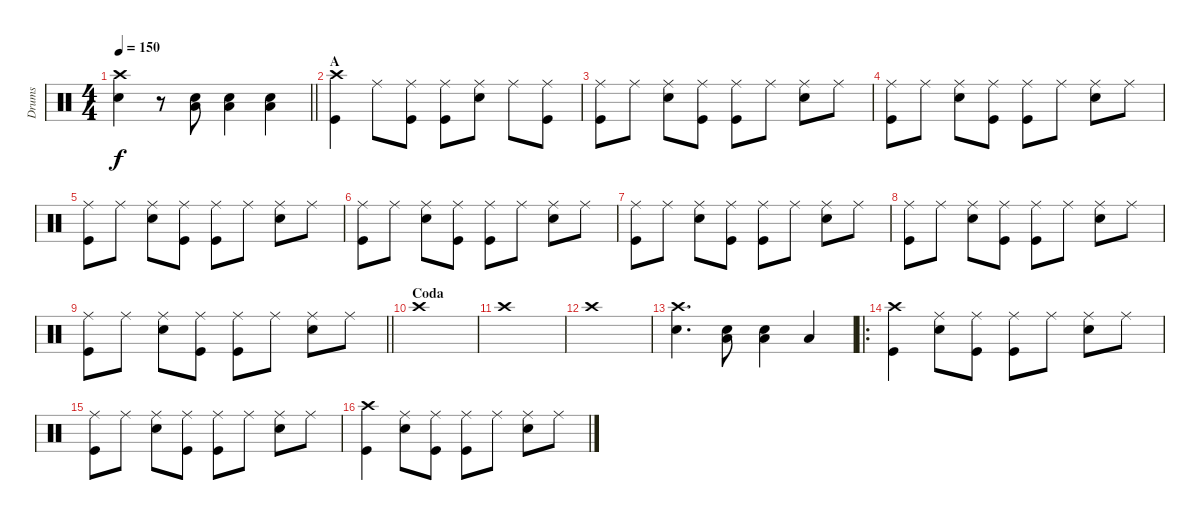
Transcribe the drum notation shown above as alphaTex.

\track ("Drums" "Drums") {instrument percussion}
\staff {score}
\articulation defaults
\ts (4 4)
\tempo 150
\clef neutral
\barLineRight lightlight
\ks c
("Crash high (hit)" "Snare (hit) 2").4{dy f} r.8 ("Snare (hit) 2" "Low Tom (hit)").8 ("Snare (hit) 2" "Low Tom (hit)").4 ("Snare (hit) 2" "Low Tom (hit)").4 |
\section ("" "A")
("Crash high (hit)" "Kick (hit)").4 "Ride (middle)".8 ("Ride (middle)" "Kick (hit)").8 ("Ride (middle)" "Kick (hit)").8 ("Ride (middle)" "Snare (hit) 2").8 "Ride (middle)".8 ("Ride (middle)" "Kick (hit)").8 |
("Ride (middle)" "Kick (hit)").8 "Ride (middle)".8 ("Ride (middle)" "Snare (hit) 2").8 ("Ride (middle)" "Kick (hit)").8 ("Ride (middle)" "Kick (hit)").8 "Ride (middle)".8 ("Ride (middle)" "Snare (hit) 2").8 "Ride (middle)".8 |
("Ride (middle)" "Kick (hit)").8 "Ride (middle)".8 ("Ride (middle)" "Snare (hit) 2").8 ("Ride (middle)" "Kick (hit)").8 ("Ride (middle)" "Kick (hit)").8 "Ride (middle)".8 ("Ride (middle)" "Snare (hit) 2").8 "Ride (middle)".8 |
("Ride (middle)" "Kick (hit)").8 "Ride (middle)".8 ("Ride (middle)" "Snare (hit) 2").8 ("Ride (middle)" "Kick (hit)").8 ("Ride (middle)" "Kick (hit)").8 "Ride (middle)".8 ("Ride (middle)" "Snare (hit) 2").8 "Ride (middle)".8 |
("Ride (middle)" "Kick (hit)").8 "Ride (middle)".8 ("Ride (middle)" "Snare (hit) 2").8 ("Ride (middle)" "Kick (hit)").8 ("Ride (middle)" "Kick (hit)").8 "Ride (middle)".8 ("Ride (middle)" "Snare (hit) 2").8 "Ride (middle)".8 |
("Ride (middle)" "Kick (hit)").8 "Ride (middle)".8 ("Ride (middle)" "Snare (hit) 2").8 ("Ride (middle)" "Kick (hit)").8 ("Ride (middle)" "Kick (hit)").8 "Ride (middle)".8 ("Ride (middle)" "Snare (hit) 2").8 "Ride (middle)".8 |
("Ride (middle)" "Kick (hit)").8 "Ride (middle)".8 ("Ride (middle)" "Snare (hit) 2").8 ("Ride (middle)" "Kick (hit)").8 ("Ride (middle)" "Kick (hit)").8 "Ride (middle)".8 ("Ride (middle)" "Snare (hit) 2").8 "Ride (middle)".8 |
\barLineRight lightlight
("Ride (middle)" "Kick (hit)").8 "Ride (middle)".8 ("Ride (middle)" "Snare (hit) 2").8 ("Ride (middle)" "Kick (hit)").8 ("Ride (middle)" "Kick (hit)").8 "Ride (middle)".8 ("Ride (middle)" "Snare (hit) 2").8 "Ride (middle)".8 |
\section ("" "Coda")
"Crash high (hit)".1 |
"Crash high (hit)".1 |
"Crash high (hit)".1 |
("Crash high (hit)" "Snare (hit) 2").4{d} ("Snare (hit) 2" "Low Tom (hit)").8 ("Snare (hit) 2" "Low Tom (hit)").4 "Low Tom (hit)".4 |
\ro
("Crash high (hit)" "Kick (hit)").4 ("Ride (middle)" "Snare (hit) 2").8 ("Ride (middle)" "Kick (hit)").8 ("Ride (middle)" "Kick (hit)").8 "Ride (middle)".8 ("Ride (middle)" "Snare (hit) 2").8 "Ride (middle)".8 |
("Ride (middle)" "Kick (hit)").8 "Ride (middle)".8 ("Ride (middle)" "Snare (hit) 2").8 ("Ride (middle)" "Kick (hit)").8 ("Ride (middle)" "Kick (hit)").8 "Ride (middle)".8 ("Ride (middle)" "Snare (hit) 2").8 "Ride (middle)".8 |
("Crash high (hit)" "Kick (hit)").4 ("Ride (middle)" "Snare (hit) 2").8 ("Ride (middle)" "Kick (hit)").8 ("Ride (middle)" "Kick (hit)").8 "Ride (middle)".8 ("Ride (middle)" "Snare (hit) 2").8 "Ride (middle)".8
